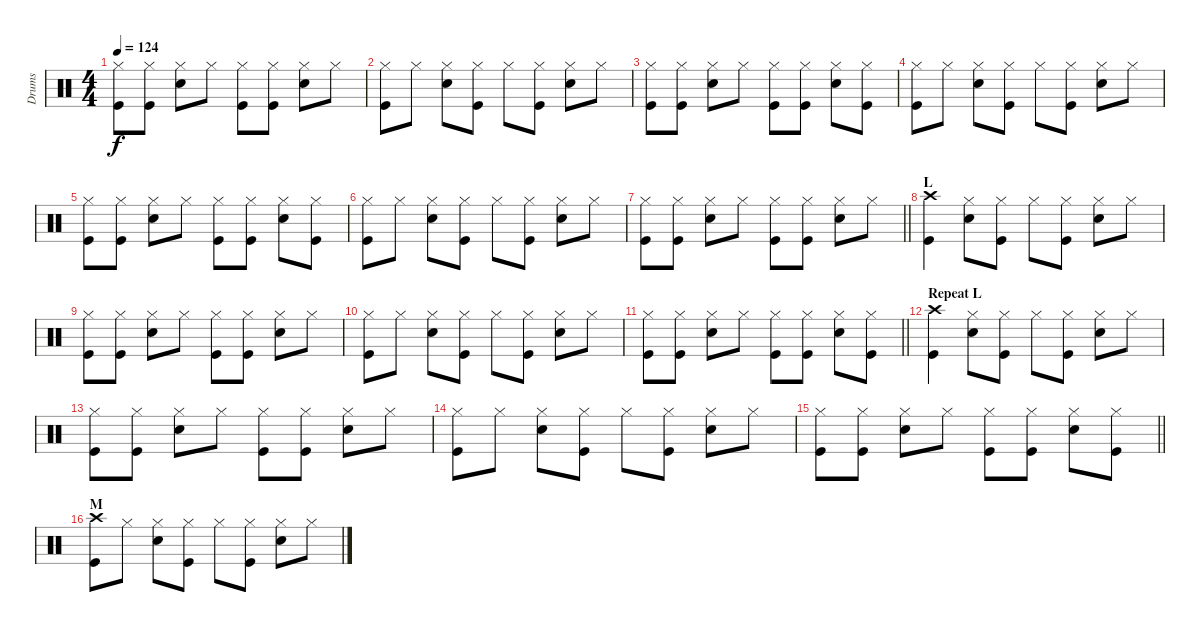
\track ("Drums" "Drums") {instrument percussion}
\staff {score}
\articulation defaults
\ts (4 4)
\tempo 124
\clef neutral
\ks c
("Hi-Hat (closed)" "Kick (hit)").8{dy f} ("Hi-Hat (closed)" "Kick (hit)").8 ("Hi-Hat (closed)" "Electric Snare (hit)").8 "Hi-Hat (closed)".8 ("Hi-Hat (closed)" "Kick (hit)").8 ("Hi-Hat (closed)" "Kick (hit)").8 ("Hi-Hat (closed)" "Electric Snare (hit)").8 "Hi-Hat (closed)".8 |
("Hi-Hat (closed)" "Kick (hit)").8 "Hi-Hat (closed)".8 ("Hi-Hat (closed)" "Electric Snare (hit)").8 ("Hi-Hat (closed)" "Kick (hit)").8 "Hi-Hat (closed)".8 ("Hi-Hat (closed)" "Kick (hit)").8 ("Hi-Hat (closed)" "Electric Snare (hit)").8 "Hi-Hat (closed)".8 |
("Hi-Hat (closed)" "Kick (hit)").8 ("Hi-Hat (closed)" "Kick (hit)").8 ("Hi-Hat (closed)" "Electric Snare (hit)").8 "Hi-Hat (closed)".8 ("Hi-Hat (closed)" "Kick (hit)").8 ("Hi-Hat (closed)" "Kick (hit)").8 ("Hi-Hat (closed)" "Electric Snare (hit)").8 ("Hi-Hat (closed)" "Kick (hit)").8 |
("Hi-Hat (closed)" "Kick (hit)").8 "Hi-Hat (closed)".8 ("Hi-Hat (closed)" "Electric Snare (hit)").8 ("Hi-Hat (closed)" "Kick (hit)").8 "Hi-Hat (closed)".8 ("Hi-Hat (closed)" "Kick (hit)").8 ("Hi-Hat (closed)" "Electric Snare (hit)").8 "Hi-Hat (closed)".8 |
("Hi-Hat (closed)" "Kick (hit)").8 ("Hi-Hat (closed)" "Kick (hit)").8 ("Hi-Hat (closed)" "Electric Snare (hit)").8 "Hi-Hat (closed)".8 ("Hi-Hat (closed)" "Kick (hit)").8 ("Hi-Hat (closed)" "Kick (hit)").8 ("Hi-Hat (closed)" "Electric Snare (hit)").8 ("Hi-Hat (closed)" "Kick (hit)").8 |
("Hi-Hat (closed)" "Kick (hit)").8 "Hi-Hat (closed)".8 ("Hi-Hat (closed)" "Electric Snare (hit)").8 ("Hi-Hat (closed)" "Kick (hit)").8 "Hi-Hat (closed)".8 ("Hi-Hat (closed)" "Kick (hit)").8 ("Hi-Hat (closed)" "Electric Snare (hit)").8 "Hi-Hat (closed)".8 |
\barLineRight lightlight
("Hi-Hat (closed)" "Kick (hit)").8 ("Hi-Hat (closed)" "Kick (hit)").8 ("Hi-Hat (closed)" "Electric Snare (hit)").8 "Hi-Hat (closed)".8 ("Hi-Hat (closed)" "Kick (hit)").8 ("Hi-Hat (closed)" "Kick (hit)").8 ("Hi-Hat (closed)" "Electric Snare (hit)").8 "Hi-Hat (closed)".8 |
\section ("" "L")
("Crash high (hit)" "Kick (hit)").4 ("Hi-Hat (closed)" "Electric Snare (hit)").8 ("Hi-Hat (closed)" "Kick (hit)").8 "Hi-Hat (closed)".8 ("Hi-Hat (closed)" "Kick (hit)").8 ("Hi-Hat (closed)" "Electric Snare (hit)").8 "Hi-Hat (closed)".8 |
("Hi-Hat (closed)" "Kick (hit)").8 ("Hi-Hat (closed)" "Kick (hit)").8 ("Hi-Hat (closed)" "Electric Snare (hit)").8 "Hi-Hat (closed)".8 ("Hi-Hat (closed)" "Kick (hit)").8 ("Hi-Hat (closed)" "Kick (hit)").8 ("Hi-Hat (closed)" "Electric Snare (hit)").8 "Hi-Hat (closed)".8 |
("Hi-Hat (closed)" "Kick (hit)").8 "Hi-Hat (closed)".8 ("Hi-Hat (closed)" "Electric Snare (hit)").8 ("Hi-Hat (closed)" "Kick (hit)").8 "Hi-Hat (closed)".8 ("Hi-Hat (closed)" "Kick (hit)").8 ("Hi-Hat (closed)" "Electric Snare (hit)").8 "Hi-Hat (closed)".8 |
\barLineRight lightlight
("Hi-Hat (closed)" "Kick (hit)").8 ("Hi-Hat (closed)" "Kick (hit)").8 ("Hi-Hat (closed)" "Electric Snare (hit)").8 "Hi-Hat (closed)".8 ("Hi-Hat (closed)" "Kick (hit)").8 ("Hi-Hat (closed)" "Kick (hit)").8 ("Hi-Hat (closed)" "Electric Snare (hit)").8 ("Hi-Hat (closed)" "Kick (hit)").8 |
\section ("" "Repeat L")
("Crash high (hit)" "Kick (hit)").4 ("Hi-Hat (closed)" "Electric Snare (hit)").8 ("Hi-Hat (closed)" "Kick (hit)").8 "Hi-Hat (closed)".8 ("Hi-Hat (closed)" "Kick (hit)").8 ("Hi-Hat (closed)" "Electric Snare (hit)").8 "Hi-Hat (closed)".8 |
("Hi-Hat (closed)" "Kick (hit)").8 ("Hi-Hat (closed)" "Kick (hit)").8 ("Hi-Hat (closed)" "Electric Snare (hit)").8 "Hi-Hat (closed)".8 ("Hi-Hat (closed)" "Kick (hit)").8 ("Hi-Hat (closed)" "Kick (hit)").8 ("Hi-Hat (closed)" "Electric Snare (hit)").8 "Hi-Hat (closed)".8 |
("Hi-Hat (closed)" "Kick (hit)").8 "Hi-Hat (closed)".8 ("Hi-Hat (closed)" "Electric Snare (hit)").8 ("Hi-Hat (closed)" "Kick (hit)").8 "Hi-Hat (closed)".8 ("Hi-Hat (closed)" "Kick (hit)").8 ("Hi-Hat (closed)" "Electric Snare (hit)").8 "Hi-Hat (closed)".8 |
\barLineRight lightlight
("Hi-Hat (closed)" "Kick (hit)").8 ("Hi-Hat (closed)" "Kick (hit)").8 ("Hi-Hat (closed)" "Electric Snare (hit)").8 "Hi-Hat (closed)".8 ("Hi-Hat (closed)" "Kick (hit)").8 ("Hi-Hat (closed)" "Kick (hit)").8 ("Hi-Hat (closed)" "Electric Snare (hit)").8 ("Hi-Hat (closed)" "Kick (hit)").8 |
\section ("" "M")
("Crash high (hit)" "Kick (hit)").8 "Hi-Hat (closed)".8 ("Hi-Hat (closed)" "Electric Snare (hit)").8 ("Hi-Hat (closed)" "Kick (hit)").8 "Hi-Hat (closed)".8 ("Hi-Hat (closed)" "Kick (hit)").8 ("Hi-Hat (closed)" "Electric Snare (hit)").8 "Hi-Hat (closed)".8
